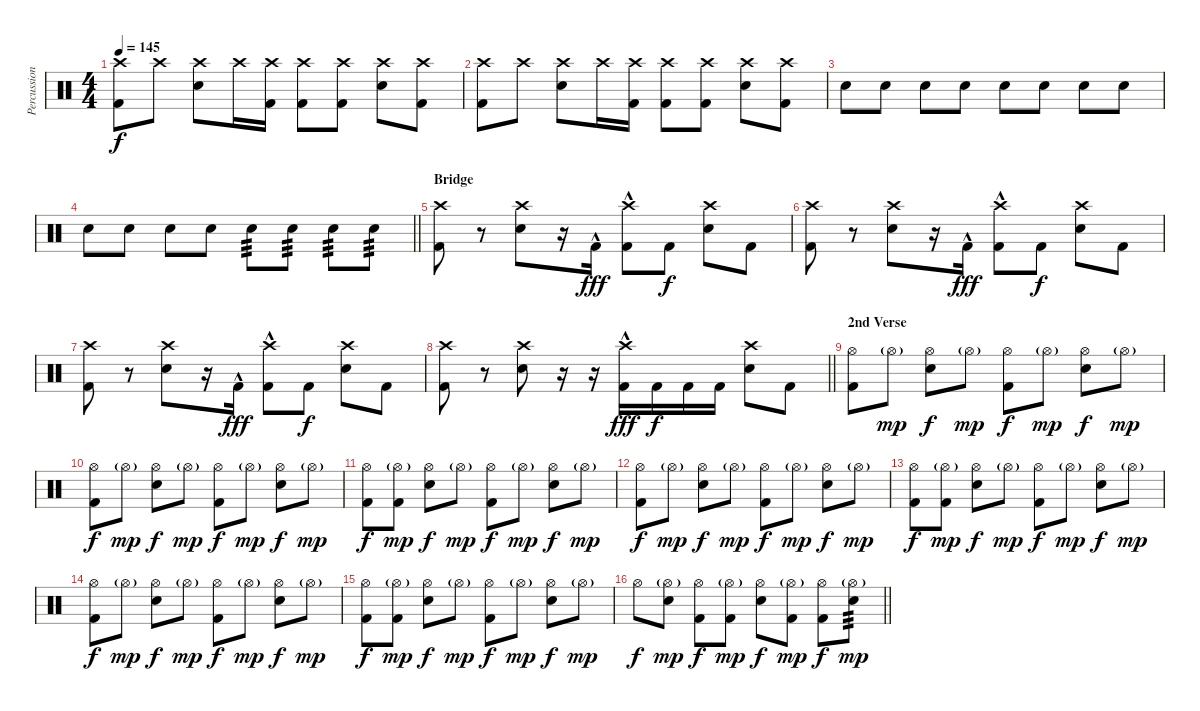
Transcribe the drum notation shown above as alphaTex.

\track ("Percussion" "Percussion") {instrument percussion}
\staff {score}
\articulation defaults
\ts (4 4)
\tempo 145
\clef neutral
\ks c
("Crash high (hit)" "Kick (hit) 2").8{dy f} "Crash high (hit)".8 ("Snare (hit) 2" "Crash high (hit)").8 "Crash high (hit)".16 ("Kick (hit) 2" "Crash high (hit)").16 ("Crash high (hit)" "Kick (hit) 2").8 ("Crash high (hit)" "Kick (hit) 2").8 ("Snare (hit) 2" "Crash high (hit)").8 ("Crash high (hit)" "Kick (hit) 2").8 |
("Crash high (hit)" "Kick (hit) 2").8 "Crash high (hit)".8 ("Snare (hit) 2" "Crash high (hit)").8 "Crash high (hit)".16 ("Kick (hit) 2" "Crash high (hit)").16 ("Crash high (hit)" "Kick (hit) 2").8 ("Crash high (hit)" "Kick (hit) 2").8 ("Snare (hit) 2" "Crash high (hit)").8 ("Crash high (hit)" "Kick (hit) 2").8 |
"Snare (hit) 2".8 "Snare (hit) 2".8 "Snare (hit) 2".8 "Snare (hit) 2".8 "Snare (hit) 2".8 "Snare (hit) 2".8 "Snare (hit) 2".8 "Snare (hit) 2".8 |
\barLineRight lightlight "Snare (hit) 2".8 "Snare (hit) 2".8 "Snare (hit) 2".8 "Snare (hit) 2".8 "Snare (hit) 2".8{tp 3} "Snare (hit) 2".8{tp 3} "Snare (hit) 2".8{tp 3} "Snare (hit) 2".8{tp 3}
|
\section ("" "Bridge")
("Crash high (hit)" "Kick (hit) 2").8 r.8 ("Snare (hit) 2" "Crash high (hit)").8 r.16 "Kick (hit) 2"{hac}.16{dy fff} ("Crash high (hit)" "Kick (hit) 2"{hac}).8 "Kick (hit) 2".8{dy f} ("Snare (hit) 2" "Crash high (hit)").8 "Kick (hit) 2".8 |
("Crash high (hit)" "Kick (hit) 2").8 r.8 ("Snare (hit) 2" "Crash high (hit)").8 r.16 "Kick (hit) 2"{hac}.16{dy fff} ("Crash high (hit)" "Kick (hit) 2"{hac}).8 "Kick (hit) 2".8{dy f} ("Snare (hit) 2" "Crash high (hit)").8 "Kick (hit) 2".8 |
("Crash high (hit)" "Kick (hit) 2").8 r.8 ("Snare (hit) 2" "Crash high (hit)").8 r.16 "Kick (hit) 2"{hac}.16{dy fff} ("Crash high (hit)" "Kick (hit) 2"{hac}).8 "Kick (hit) 2".8{dy f} ("Snare (hit) 2" "Crash high (hit)").8 "Kick (hit) 2".8 |
\barLineRight lightlight
("Crash high (hit)" "Kick (hit) 2").8 r.8 ("Snare (hit) 2" "Crash high (hit)").8 r.16 r.16 ("Crash high (hit)" "Kick (hit) 2"{hac}).16{dy fff} "Kick (hit) 2".16{dy f} "Kick (hit) 2".16 "Kick (hit) 2".16 ("Snare (hit) 2" "Crash high (hit)").8 "Kick (hit) 2".8 |
\section ("" "2nd Verse")
("Hi-Hat (open)" "Kick (hit) 2").8 "Hi-Hat (open)"{g}.8{dy mp} ("Snare (hit) 2" "Hi-Hat (open)").8{dy f} "Hi-Hat (open)"{g}.8{dy mp} ("Hi-Hat (open)" "Kick (hit) 2").8{dy f} "Hi-Hat (open)"{g}.8{dy mp} ("Snare (hit) 2" "Hi-Hat (open)").8{dy f} "Hi-Hat (open)"{g}.8{dy mp} |
("Hi-Hat (open)" "Kick (hit) 2").8{dy f} "Hi-Hat (open)"{g}.8{dy mp} ("Snare (hit) 2" "Hi-Hat (open)").8{dy f} "Hi-Hat (open)"{g}.8{dy mp} ("Hi-Hat (open)" "Kick (hit) 2").8{dy f} "Hi-Hat (open)"{g}.8{dy mp} ("Snare (hit) 2" "Hi-Hat (open)").8{dy f} "Hi-Hat (open)"{g}.8{dy mp} |
("Hi-Hat (open)" "Kick (hit) 2").8{dy f} ("Hi-Hat (open)"{g} "Kick (hit) 2").8{dy mp} ("Snare (hit) 2" "Hi-Hat (open)").8{dy f} "Hi-Hat (open)"{g}.8{dy mp} ("Hi-Hat (open)" "Kick (hit) 2").8{dy f} "Hi-Hat (open)"{g}.8{dy mp} ("Snare (hit) 2" "Hi-Hat (open)").8{dy f} "Hi-Hat (open)"{g}.8{dy mp} |
("Hi-Hat (open)" "Kick (hit) 2").8{dy f} "Hi-Hat (open)"{g}.8{dy mp} ("Snare (hit) 2" "Hi-Hat (open)").8{dy f} "Hi-Hat (open)"{g}.8{dy mp} ("Hi-Hat (open)" "Kick (hit) 2").8{dy f} "Hi-Hat (open)"{g}.8{dy mp} ("Snare (hit) 2" "Hi-Hat (open)").8{dy f} "Hi-Hat (open)"{g}.8{dy mp} |
("Hi-Hat (open)" "Kick (hit) 2").8{dy f} ("Hi-Hat (open)"{g} "Kick (hit) 2").8{dy mp} ("Snare (hit) 2" "Hi-Hat (open)").8{dy f} "Hi-Hat (open)"{g}.8{dy mp} ("Hi-Hat (open)" "Kick (hit) 2").8{dy f} "Hi-Hat (open)"{g}.8{dy mp} ("Snare (hit) 2" "Hi-Hat (open)").8{dy f} "Hi-Hat (open)"{g}.8{dy mp} |
("Hi-Hat (open)" "Kick (hit) 2").8{dy f} "Hi-Hat (open)"{g}.8{dy mp} ("Snare (hit) 2" "Hi-Hat (open)").8{dy f} "Hi-Hat (open)"{g}.8{dy mp} ("Hi-Hat (open)" "Kick (hit) 2").8{dy f} "Hi-Hat (open)"{g}.8{dy mp} ("Snare (hit) 2" "Hi-Hat (open)").8{dy f} "Hi-Hat (open)"{g}.8{dy mp} |
("Hi-Hat (open)" "Kick (hit) 2").8{dy f} ("Hi-Hat (open)"{g} "Kick (hit) 2").8{dy mp} ("Snare (hit) 2" "Hi-Hat (open)").8{dy f} "Hi-Hat (open)"{g}.8{dy mp} ("Hi-Hat (open)" "Kick (hit) 2").8{dy f} "Hi-Hat (open)"{g}.8{dy mp} ("Snare (hit) 2" "Hi-Hat (open)").8{dy f} "Hi-Hat (open)"{g}.8{dy mp} |
\barLineRight lightlight "Hi-Hat (open)".8{dy f}
("Snare (hit) 2" "Hi-Hat (open)"{g}).8{dy mp} ("Hi-Hat (open)" "Kick (hit) 2").8{dy f} ("Hi-Hat (open)"{g} "Kick (hit) 2").8{dy mp} ("Snare (hit) 2" "Hi-Hat (open)").8{dy f} ("Hi-Hat (open)"{g} "Kick (hit) 2").8{dy mp} ("Hi-Hat (open)" "Kick (hit) 2").8{dy f} ("Snare (hit) 2" "Hi-Hat (open)"{g}).8{tp 3 dy mp}
